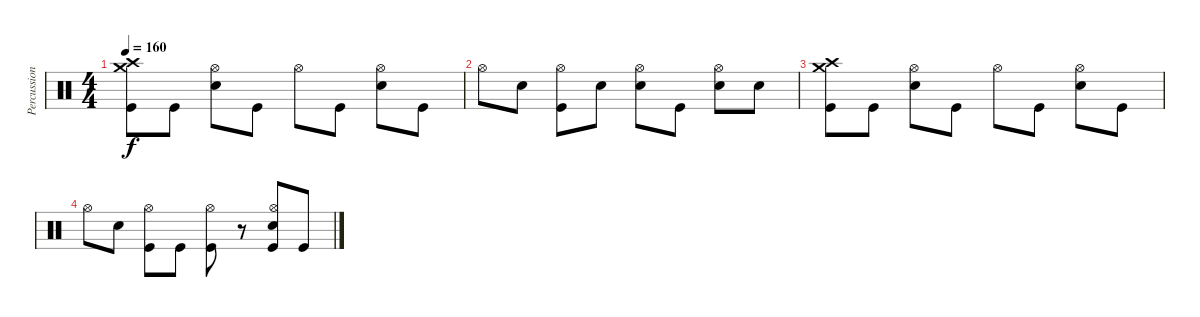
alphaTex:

\track ("Percussion" "Percussion") {instrument percussion}
\staff {score}
\articulation defaults
\ts (4 4)
\tempo 160
\clef neutral
\ks c
("Crash medium (hit)" "Crash high (hit)" "Kick (hit)").8{dy f} "Kick (hit)".8 ("Hi-Hat (open)" "Snare (hit) 2").8 "Kick (hit)".8 "Hi-Hat (open)".8 "Kick (hit)".8 ("Hi-Hat (open)" "Snare (hit) 2").8 "Kick (hit)".8 |
"Hi-Hat (open)".8 "Snare (hit) 2".8 ("Hi-Hat (open)" "Kick (hit)").8 "Snare (hit) 2".8 ("Hi-Hat (open)" "Snare (hit) 2").8 "Kick (hit)".8 ("Hi-Hat (open)" "Snare (hit) 2").8 "Snare (hit) 2".8 |
("Crash medium (hit)" "Crash high (hit)" "Kick (hit)").8 "Kick (hit)".8 ("Hi-Hat (open)" "Snare (hit) 2").8 "Kick (hit)".8 "Hi-Hat (open)".8 "Kick (hit)".8 ("Hi-Hat (open)" "Snare (hit) 2").8 "Kick (hit)".8 |
"Hi-Hat (open)".8 "Snare (hit) 2".8 ("Hi-Hat (open)" "Kick (hit)").8 "Kick (hit)".8 ("Hi-Hat (open)" "Kick (hit)").8 r.8 ("Hi-Hat (open)" "Snare (hit) 2" "Kick (hit)").8 "Kick (hit)".8
